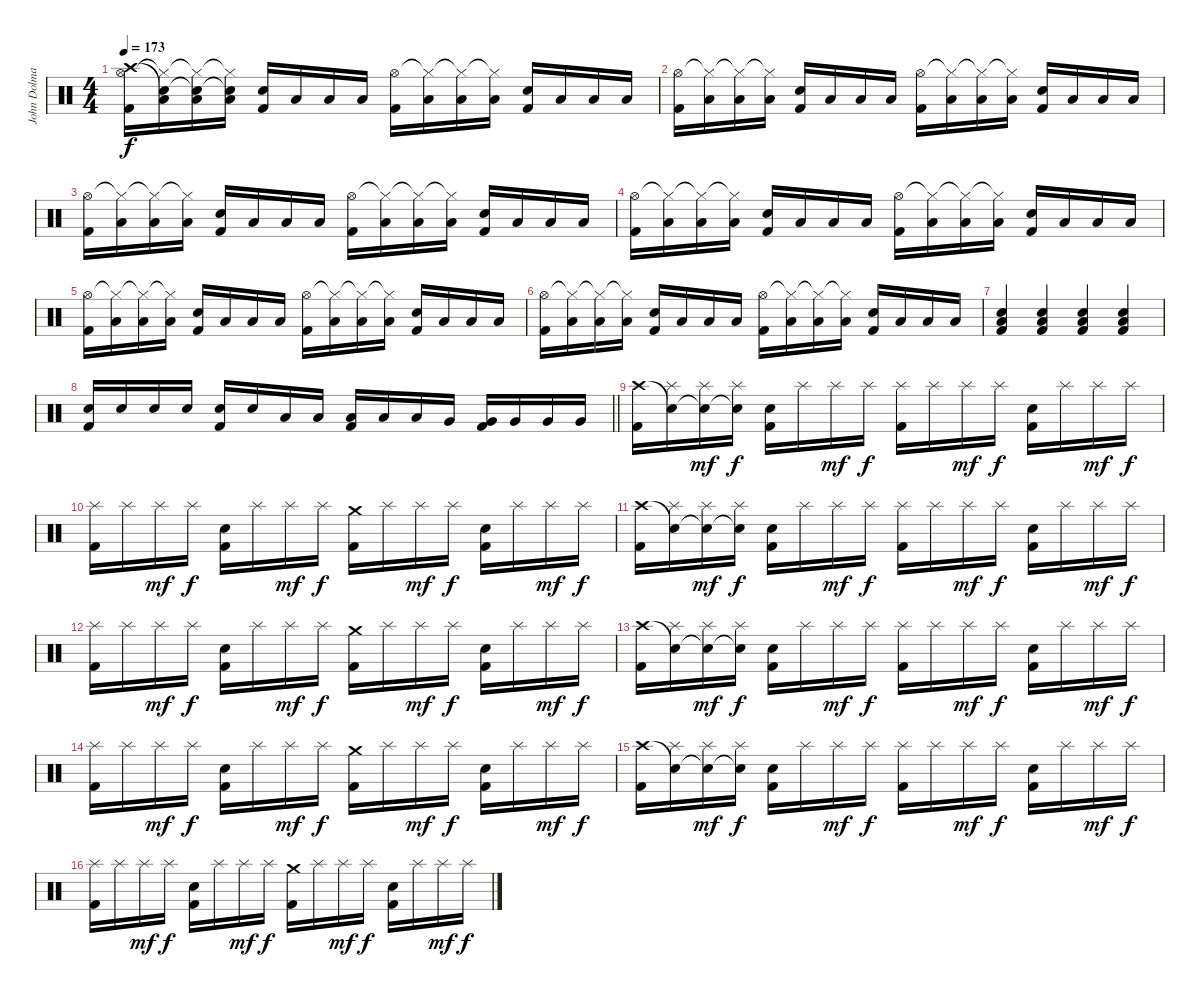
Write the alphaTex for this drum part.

\track ("John Dolmayan" "John Dolma") {instrument percussion}
\staff {score}
\articulation defaults
\ts (4 4)
\tempo 173
\clef neutral
\ks c
("Crash high (hit)" "Hi-Hat (open)" "Kick (hit) 2").16{dy f} ("Snare (hit)"{t} "Hi-Hat (closed)"{t} "Low Tom (hit)").16 ("Snare (hit)"{t} "Hi-Hat (closed)"{t} "Low Tom (hit)").16 ("Snare (hit)"{t} "Hi-Hat (closed)"{t} "Low Tom (hit)").16 ("Electric Snare (hit)" "Kick (hit) 2").16 "Low Tom (hit)".16 "Low Tom (hit)".16 "Low Tom (hit)".16 ("Hi-Hat (open)" "Kick (hit) 2").16 ("Hi-Hat (closed)"{t} "Low Tom (hit)").16 ("Hi-Hat (closed)"{t} "Low Tom (hit)").16 ("Hi-Hat (closed)"{t} "Low Tom (hit)").16 ("Electric Snare (hit)" "Kick (hit) 2").16 "Low Tom (hit)".16 "Low Tom (hit)".16 "Low Tom (hit)".16 |
("Hi-Hat (open)" "Kick (hit) 2").16 ("Hi-Hat (closed)"{t} "Low Tom (hit)").16 ("Hi-Hat (closed)"{t} "Low Tom (hit)").16 ("Hi-Hat (closed)"{t} "Low Tom (hit)").16 ("Electric Snare (hit)" "Kick (hit) 2").16 "Low Tom (hit)".16 "Low Tom (hit)".16 "Low Tom (hit)".16 ("Hi-Hat (open)" "Kick (hit) 2").16 ("Hi-Hat (closed)"{t} "Low Tom (hit)").16 ("Hi-Hat (closed)"{t} "Low Tom (hit)").16 ("Hi-Hat (closed)"{t} "Low Tom (hit)").16 ("Electric Snare (hit)" "Kick (hit) 2").16 "Low Tom (hit)".16 "Low Tom (hit)".16 "Low Tom (hit)".16 |
("Hi-Hat (open)" "Kick (hit) 2").16 ("Hi-Hat (closed)"{t} "Low Tom (hit)").16 ("Hi-Hat (closed)"{t} "Low Tom (hit)").16 ("Hi-Hat (closed)"{t} "Low Tom (hit)").16 ("Electric Snare (hit)" "Kick (hit) 2").16 "Low Tom (hit)".16 "Low Tom (hit)".16 "Low Tom (hit)".16 ("Hi-Hat (open)" "Kick (hit) 2").16 ("Hi-Hat (closed)"{t} "Low Tom (hit)").16 ("Hi-Hat (closed)"{t} "Low Tom (hit)").16 ("Hi-Hat (closed)"{t} "Low Tom (hit)").16 ("Electric Snare (hit)" "Kick (hit) 2").16 "Low Tom (hit)".16 "Low Tom (hit)".16 "Low Tom (hit)".16 |
("Hi-Hat (open)" "Kick (hit) 2").16 ("Hi-Hat (closed)"{t} "Low Tom (hit)").16 ("Hi-Hat (closed)"{t} "Low Tom (hit)").16 ("Hi-Hat (closed)"{t} "Low Tom (hit)").16 ("Electric Snare (hit)" "Kick (hit) 2").16 "Low Tom (hit)".16 "Low Tom (hit)".16 "Low Tom (hit)".16 ("Hi-Hat (open)" "Kick (hit) 2").16 ("Hi-Hat (closed)"{t} "Low Tom (hit)").16 ("Hi-Hat (closed)"{t} "Low Tom (hit)").16 ("Hi-Hat (closed)"{t} "Low Tom (hit)").16 ("Electric Snare (hit)" "Kick (hit) 2").16 "Low Tom (hit)".16 "Low Tom (hit)".16 "Low Tom (hit)".16 |
("Hi-Hat (open)" "Kick (hit) 2").16 ("Hi-Hat (closed)"{t} "Low Tom (hit)").16 ("Hi-Hat (closed)"{t} "Low Tom (hit)").16 ("Hi-Hat (closed)"{t} "Low Tom (hit)").16 ("Electric Snare (hit)" "Kick (hit) 2").16 "Low Tom (hit)".16 "Low Tom (hit)".16 "Low Tom (hit)".16 ("Hi-Hat (open)" "Kick (hit) 2").16 ("Hi-Hat (closed)"{t} "Low Tom (hit)").16 ("Hi-Hat (closed)"{t} "Low Tom (hit)").16 ("Hi-Hat (closed)"{t} "Low Tom (hit)").16 ("Electric Snare (hit)" "Kick (hit) 2").16 "Low Tom (hit)".16 "Low Tom (hit)".16 "Low Tom (hit)".16 |
("Hi-Hat (open)" "Kick (hit) 2").16 ("Hi-Hat (closed)"{t} "Low Tom (hit)").16 ("Hi-Hat (closed)"{t} "Low Tom (hit)").16 ("Hi-Hat (closed)"{t} "Low Tom (hit)").16 ("Electric Snare (hit)" "Kick (hit) 2").16 "Low Tom (hit)".16 "Low Tom (hit)".16 "Low Tom (hit)".16 ("Hi-Hat (open)" "Kick (hit) 2").16 ("Hi-Hat (closed)"{t} "Low Tom (hit)").16 ("Hi-Hat (closed)"{t} "Low Tom (hit)").16 ("Hi-Hat (closed)"{t} "Low Tom (hit)").16 ("Electric Snare (hit)" "Kick (hit) 2").16 "Low Tom (hit)".16 "Low Tom (hit)".16 "Low Tom (hit)".16 |
("Electric Snare (hit)" "Low Tom (hit)" "Kick (hit) 2").4 ("Electric Snare (hit)" "Low Tom (hit)" "Kick (hit) 2").4 ("Electric Snare (hit)" "Low Tom (hit)" "Kick (hit) 2").4 ("Electric Snare (hit)" "Low Tom (hit)" "Kick (hit) 2").4 |
\barLineRight lightlight
("Electric Snare (hit)" "Kick (hit) 2").16 "Electric Snare (hit)".16 "Electric Snare (hit)".16 "Electric Snare (hit)".16 ("Electric Snare (hit)" "Kick (hit) 2").16 "Electric Snare (hit)".16 "Low Tom (hit)".16 "Low Tom (hit)".16 ("Low Tom (hit)" "Kick (hit) 2").16 "Low Tom (hit)".16 "Low Tom (hit)".16 "Very Low Tom (hit)".16 ("Very Low Tom (hit)" "Kick (hit) 2").16 "Very Low Tom (hit)".16 "Very Low Tom (hit)".16 "Very Low Tom (hit)".16 |
("Crash high (hit)" "Kick (hit) 2").16 ("Snare (hit)"{t} "Splash (hit)").16 ("Snare (hit)"{t} "Splash (hit)").16{dy mf} ("Snare (hit)"{t} "Splash (hit)").16{dy f} ("Electric Snare (hit)" "Kick (hit) 2").16 "Splash (hit)".16 "Splash (hit)".16{dy mf} "Splash (hit)".16{dy f} ("Splash (hit)" "Kick (hit) 2").16 "Splash (hit)".16 "Splash (hit)".16{dy mf} "Splash (hit)".16{dy f} ("Electric Snare (hit)" "Kick (hit) 2").16 "Splash (hit)".16 "Splash (hit)".16{dy mf} "Splash (hit)".16{dy f} |
("Splash (hit)" "Kick (hit) 2").16 "Splash (hit)".16 "Splash (hit)".16{dy mf} "Splash (hit)".16{dy f} ("Electric Snare (hit)" "Kick (hit) 2").16 "Splash (hit)".16 "Splash (hit)".16{dy mf} "Splash (hit)".16{dy f} ("Crash medium (hit)" "Kick (hit) 2").16 "Splash (hit)".16 "Splash (hit)".16{dy mf} "Splash (hit)".16{dy f} ("Electric Snare (hit)" "Kick (hit) 2").16 "Splash (hit)".16 "Splash (hit)".16{dy mf} "Splash (hit)".16{dy f} |
("Crash high (hit)" "Kick (hit) 2").16 ("Snare (hit)"{t} "Splash (hit)").16 ("Snare (hit)"{t} "Splash (hit)").16{dy mf} ("Snare (hit)"{t} "Splash (hit)").16{dy f} ("Electric Snare (hit)" "Kick (hit) 2").16 "Splash (hit)".16 "Splash (hit)".16{dy mf} "Splash (hit)".16{dy f} ("Splash (hit)" "Kick (hit) 2").16 "Splash (hit)".16 "Splash (hit)".16{dy mf} "Splash (hit)".16{dy f} ("Electric Snare (hit)" "Kick (hit) 2").16 "Splash (hit)".16 "Splash (hit)".16{dy mf} "Splash (hit)".16{dy f} |
("Splash (hit)" "Kick (hit) 2").16 "Splash (hit)".16 "Splash (hit)".16{dy mf} "Splash (hit)".16{dy f} ("Electric Snare (hit)" "Kick (hit) 2").16 "Splash (hit)".16 "Splash (hit)".16{dy mf} "Splash (hit)".16{dy f} ("Crash medium (hit)" "Kick (hit) 2").16 "Splash (hit)".16 "Splash (hit)".16{dy mf} "Splash (hit)".16{dy f} ("Electric Snare (hit)" "Kick (hit) 2").16 "Splash (hit)".16 "Splash (hit)".16{dy mf} "Splash (hit)".16{dy f} |
("Crash high (hit)" "Kick (hit) 2").16 ("Snare (hit)"{t} "Splash (hit)").16 ("Snare (hit)"{t} "Splash (hit)").16{dy mf} ("Snare (hit)"{t} "Splash (hit)").16{dy f} ("Electric Snare (hit)" "Kick (hit) 2").16 "Splash (hit)".16 "Splash (hit)".16{dy mf} "Splash (hit)".16{dy f} ("Splash (hit)" "Kick (hit) 2").16 "Splash (hit)".16 "Splash (hit)".16{dy mf} "Splash (hit)".16{dy f} ("Electric Snare (hit)" "Kick (hit) 2").16 "Splash (hit)".16 "Splash (hit)".16{dy mf} "Splash (hit)".16{dy f} |
("Splash (hit)" "Kick (hit) 2").16 "Splash (hit)".16 "Splash (hit)".16{dy mf} "Splash (hit)".16{dy f} ("Electric Snare (hit)" "Kick (hit) 2").16 "Splash (hit)".16 "Splash (hit)".16{dy mf} "Splash (hit)".16{dy f} ("Crash medium (hit)" "Kick (hit) 2").16 "Splash (hit)".16 "Splash (hit)".16{dy mf} "Splash (hit)".16{dy f} ("Electric Snare (hit)" "Kick (hit) 2").16 "Splash (hit)".16 "Splash (hit)".16{dy mf} "Splash (hit)".16{dy f} |
("Crash high (hit)" "Kick (hit) 2").16 ("Snare (hit)"{t} "Splash (hit)").16 ("Snare (hit)"{t} "Splash (hit)").16{dy mf} ("Snare (hit)"{t} "Splash (hit)").16{dy f} ("Electric Snare (hit)" "Kick (hit) 2").16 "Splash (hit)".16 "Splash (hit)".16{dy mf} "Splash (hit)".16{dy f} ("Splash (hit)" "Kick (hit) 2").16 "Splash (hit)".16 "Splash (hit)".16{dy mf} "Splash (hit)".16{dy f} ("Electric Snare (hit)" "Kick (hit) 2").16 "Splash (hit)".16 "Splash (hit)".16{dy mf} "Splash (hit)".16{dy f} |
("Splash (hit)" "Kick (hit) 2").16 "Splash (hit)".16 "Splash (hit)".16{dy mf} "Splash (hit)".16{dy f} ("Electric Snare (hit)" "Kick (hit) 2").16 "Splash (hit)".16 "Splash (hit)".16{dy mf} "Splash (hit)".16{dy f} ("Crash medium (hit)" "Kick (hit) 2").16 "Splash (hit)".16 "Splash (hit)".16{dy mf} "Splash (hit)".16{dy f} ("Electric Snare (hit)" "Kick (hit) 2").16 "Splash (hit)".16 "Splash (hit)".16{dy mf} "Splash (hit)".16{dy f}
